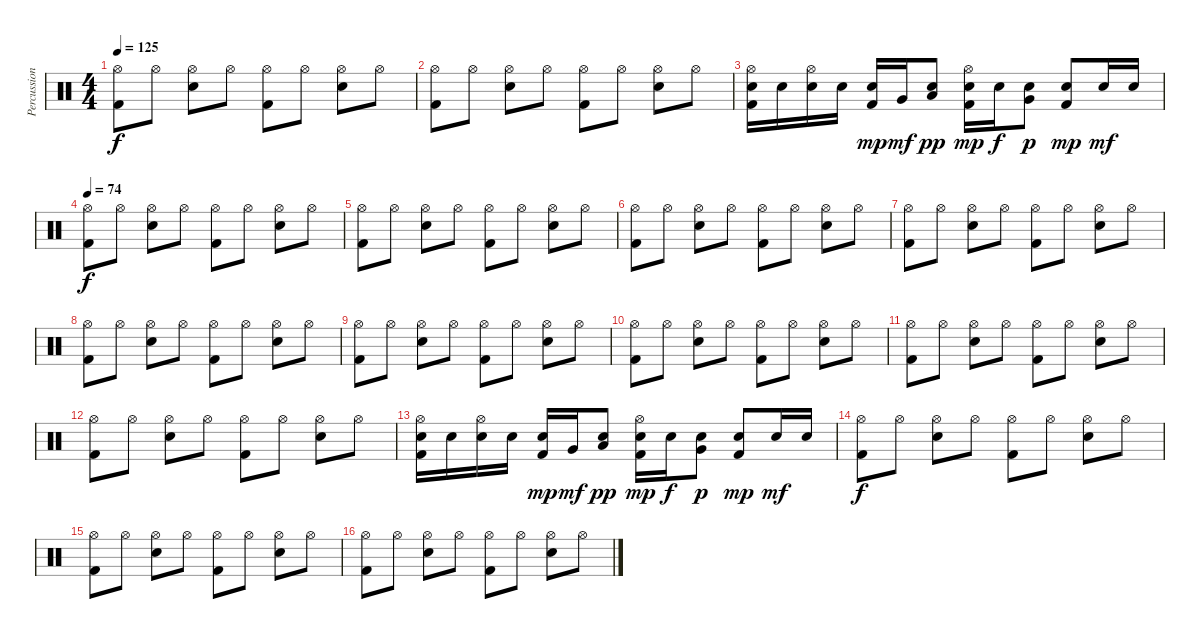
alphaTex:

\track ("Percussion" "Percussion") {instrument percussion}
\staff {score}
\articulation defaults
\ts (4 4)
\tempo 125
\clef neutral
\ks c
("Hi-Hat (open)" "Kick (hit) 2").8{dy f} "Hi-Hat (open)".8 ("Hi-Hat (open)" "Electric Snare (hit)").8 "Hi-Hat (open)".8 ("Hi-Hat (open)" "Kick (hit) 2").8 "Hi-Hat (open)".8 ("Hi-Hat (open)" "Electric Snare (hit)").8 "Hi-Hat (open)".8 |
("Hi-Hat (open)" "Kick (hit) 2").8 "Hi-Hat (open)".8 ("Hi-Hat (open)" "Electric Snare (hit)").8 "Hi-Hat (open)".8 ("Hi-Hat (open)" "Kick (hit) 2").8 "Hi-Hat (open)".8 ("Hi-Hat (open)" "Electric Snare (hit)").8 "Hi-Hat (open)".8 |
("Electric Snare (hit)" "Hi-Hat (open)" "Kick (hit) 2").16 "Electric Snare (hit)".16 ("Electric Snare (hit)" "Hi-Hat (open)").16 "Electric Snare (hit)".16 ("Electric Snare (hit)" "Kick (hit) 2").16{dy mp} "Very Low Tom (hit)".16{dy mf} ("Low Tom (hit)" "Electric Snare (hit)").8{dy pp} ("Electric Snare (hit)" "Hi-Hat (open)" "Kick (hit) 2").16{dy mp} "Electric Snare (hit)".16{dy f} ("Very Low Tom (hit)" "Electric Snare (hit)").8{dy p} ("Electric Snare (hit)" "Kick (hit) 2").8{dy mp} "Electric Snare (hit)".16{dy mf} "Electric Snare (hit)".16 |
\tempo 74
("Hi-Hat (open)" "Kick (hit) 2").8{dy f} "Hi-Hat (open)".8 ("Hi-Hat (open)" "Electric Snare (hit)").8 "Hi-Hat (open)".8 ("Hi-Hat (open)" "Kick (hit) 2").8 "Hi-Hat (open)".8 ("Hi-Hat (open)" "Electric Snare (hit)").8 "Hi-Hat (open)".8 |
("Hi-Hat (open)" "Kick (hit) 2").8 "Hi-Hat (open)".8 ("Hi-Hat (open)" "Electric Snare (hit)").8 "Hi-Hat (open)".8 ("Hi-Hat (open)" "Kick (hit) 2").8 "Hi-Hat (open)".8 ("Hi-Hat (open)" "Electric Snare (hit)").8 "Hi-Hat (open)".8 |
("Hi-Hat (open)" "Kick (hit) 2").8 "Hi-Hat (open)".8 ("Hi-Hat (open)" "Electric Snare (hit)").8 "Hi-Hat (open)".8 ("Hi-Hat (open)" "Kick (hit) 2").8 "Hi-Hat (open)".8 ("Hi-Hat (open)" "Electric Snare (hit)").8 "Hi-Hat (open)".8 |
("Hi-Hat (open)" "Kick (hit) 2").8 "Hi-Hat (open)".8 ("Hi-Hat (open)" "Electric Snare (hit)").8 "Hi-Hat (open)".8 ("Hi-Hat (open)" "Kick (hit) 2").8 "Hi-Hat (open)".8 ("Hi-Hat (open)" "Electric Snare (hit)").8 "Hi-Hat (open)".8 |
("Hi-Hat (open)" "Kick (hit) 2").8 "Hi-Hat (open)".8 ("Hi-Hat (open)" "Electric Snare (hit)").8 "Hi-Hat (open)".8 ("Hi-Hat (open)" "Kick (hit) 2").8 "Hi-Hat (open)".8 ("Hi-Hat (open)" "Electric Snare (hit)").8 "Hi-Hat (open)".8 |
("Hi-Hat (open)" "Kick (hit) 2").8 "Hi-Hat (open)".8 ("Hi-Hat (open)" "Electric Snare (hit)").8 "Hi-Hat (open)".8 ("Hi-Hat (open)" "Kick (hit) 2").8 "Hi-Hat (open)".8 ("Hi-Hat (open)" "Electric Snare (hit)").8 "Hi-Hat (open)".8 |
("Hi-Hat (open)" "Kick (hit) 2").8 "Hi-Hat (open)".8 ("Hi-Hat (open)" "Electric Snare (hit)").8 "Hi-Hat (open)".8 ("Hi-Hat (open)" "Kick (hit) 2").8 "Hi-Hat (open)".8 ("Hi-Hat (open)" "Electric Snare (hit)").8 "Hi-Hat (open)".8 |
("Hi-Hat (open)" "Kick (hit) 2").8 "Hi-Hat (open)".8 ("Hi-Hat (open)" "Electric Snare (hit)").8 "Hi-Hat (open)".8 ("Hi-Hat (open)" "Kick (hit) 2").8 "Hi-Hat (open)".8 ("Hi-Hat (open)" "Electric Snare (hit)").8 "Hi-Hat (open)".8 |
("Hi-Hat (open)" "Kick (hit) 2").8 "Hi-Hat (open)".8 ("Hi-Hat (open)" "Electric Snare (hit)").8 "Hi-Hat (open)".8 ("Hi-Hat (open)" "Kick (hit) 2").8 "Hi-Hat (open)".8 ("Hi-Hat (open)" "Electric Snare (hit)").8 "Hi-Hat (open)".8 |
("Electric Snare (hit)" "Hi-Hat (open)" "Kick (hit) 2").16 "Electric Snare (hit)".16 ("Electric Snare (hit)" "Hi-Hat (open)").16 "Electric Snare (hit)".16 ("Electric Snare (hit)" "Kick (hit) 2").16{dy mp} "Very Low Tom (hit)".16{dy mf} ("Low Tom (hit)" "Electric Snare (hit)").8{dy pp} ("Electric Snare (hit)" "Hi-Hat (open)" "Kick (hit) 2").16{dy mp} "Electric Snare (hit)".16{dy f} ("Very Low Tom (hit)" "Electric Snare (hit)").8{dy p} ("Electric Snare (hit)" "Kick (hit) 2").8{dy mp} "Electric Snare (hit)".16{dy mf} "Electric Snare (hit)".16 |
("Hi-Hat (open)" "Kick (hit) 2").8{dy f} "Hi-Hat (open)".8 ("Hi-Hat (open)" "Electric Snare (hit)").8 "Hi-Hat (open)".8 ("Hi-Hat (open)" "Kick (hit) 2").8 "Hi-Hat (open)".8 ("Hi-Hat (open)" "Electric Snare (hit)").8 "Hi-Hat (open)".8 |
("Hi-Hat (open)" "Kick (hit) 2").8 "Hi-Hat (open)".8 ("Hi-Hat (open)" "Electric Snare (hit)").8 "Hi-Hat (open)".8 ("Hi-Hat (open)" "Kick (hit) 2").8 "Hi-Hat (open)".8 ("Hi-Hat (open)" "Electric Snare (hit)").8 "Hi-Hat (open)".8 |
("Hi-Hat (open)" "Kick (hit) 2").8 "Hi-Hat (open)".8 ("Hi-Hat (open)" "Electric Snare (hit)").8 "Hi-Hat (open)".8 ("Hi-Hat (open)" "Kick (hit) 2").8 "Hi-Hat (open)".8 ("Hi-Hat (open)" "Electric Snare (hit)").8 "Hi-Hat (open)".8
